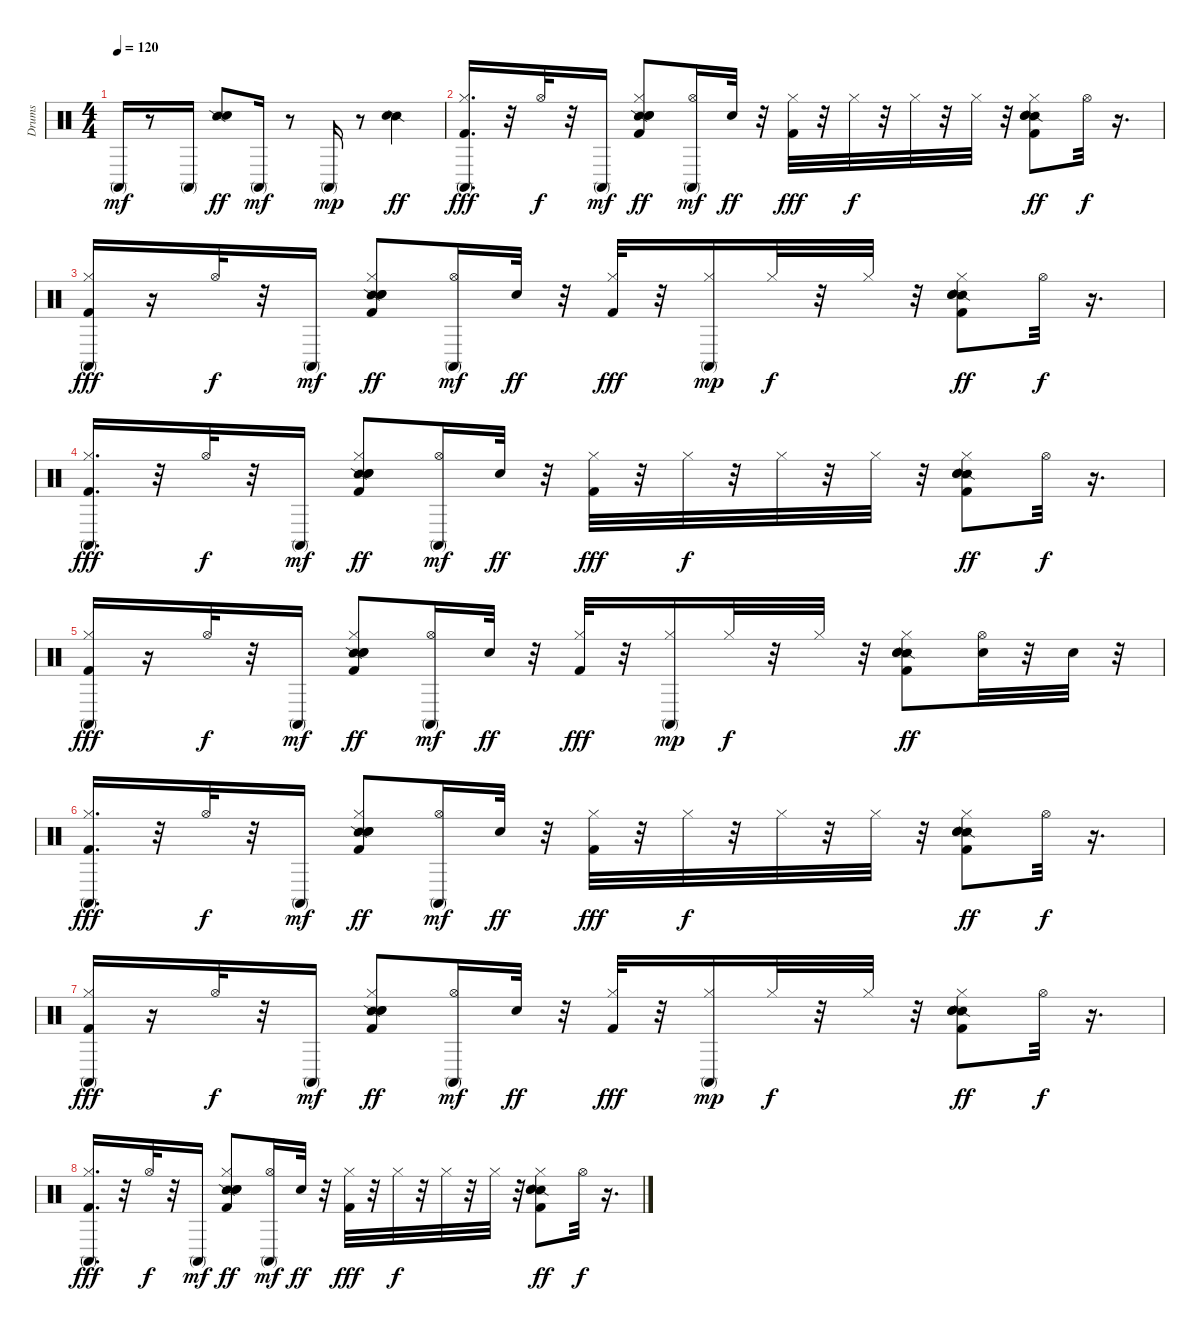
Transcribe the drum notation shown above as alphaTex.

\track ("Drums" "Drums") {instrument percussion}
\staff {score}
\articulation defaults
\ts (4 4)
\tempo 120
\clef neutral
\ks c "Conga high (mute)".16{dy mf}
r.8 "Conga high (mute)".16 ("Snare (side stick) 2" "Hand Clap (hit)").8{dy ff} "Conga high (mute)".16{dy mf} r.8 "Conga high (mute)".16{dy mp} r.8 ("Snare (side stick) 2" "Hand Clap (hit)").4{dy ff} |
("Conga high (mute)" "Kick (hit) 2" "Hi-Hat (closed)").16{d dy fff} r.32 "Hi-Hat (open)".32{dy f} r.32 "Conga high (mute)".16{dy mf} ("Snare (side stick) 2" "Kick (hit) 2" "Snare (hit) 2" "Hi-Hat (closed)" "Hand Clap (hit)").8{dy ff} ("Conga high (mute)" "Hi-Hat (open)").16{dy mf} "Snare (hit) 2".32{dy ff} r.32 ("Kick (hit) 2" "Hi-Hat (closed)").32{dy fff} r.32 "Hi-Hat (closed)".32{dy f} r.32 "Hi-Hat (closed)".32 r.32 "Hi-Hat (closed)".32 r.32 ("Snare (side stick) 2" "Kick (hit) 2" "Snare (hit) 2" "Hi-Hat (closed)" "Hand Clap (hit)").8{dy ff} "Hi-Hat (open)".32{dy f} r.16{d} |
("Conga high (mute)" "Kick (hit) 2" "Hi-Hat (closed)").16{dy fff} r.16 "Hi-Hat (open)".32{dy f} r.32 "Conga high (mute)".16{dy mf} ("Snare (side stick) 2" "Kick (hit) 2" "Snare (hit) 2" "Hi-Hat (closed)" "Hand Clap (hit)").8{dy ff} ("Conga high (mute)" "Hi-Hat (open)").16{dy mf} "Snare (hit) 2".32{dy ff} r.32 ("Kick (hit) 2" "Hi-Hat (closed)").32{dy fff} r.32 ("Conga high (mute)" "Hi-Hat (closed)").16{dy mp} "Hi-Hat (closed)".32{dy f} r.32 "Hi-Hat (closed)".32 r.32 ("Snare (side stick) 2" "Kick (hit) 2" "Snare (hit) 2" "Hi-Hat (closed)" "Hand Clap (hit)").8{dy ff} "Hi-Hat (open)".32{dy f} r.16{d} |
("Conga high (mute)" "Kick (hit) 2" "Hi-Hat (closed)").16{d dy fff} r.32 "Hi-Hat (open)".32{dy f} r.32 "Conga high (mute)".16{dy mf} ("Snare (side stick) 2" "Kick (hit) 2" "Snare (hit) 2" "Hi-Hat (closed)" "Hand Clap (hit)").8{dy ff} ("Conga high (mute)" "Hi-Hat (open)").16{dy mf} "Snare (hit) 2".32{dy ff} r.32 ("Kick (hit) 2" "Hi-Hat (closed)").32{dy fff} r.32 "Hi-Hat (closed)".32{dy f} r.32 "Hi-Hat (closed)".32 r.32 "Hi-Hat (closed)".32 r.32 ("Snare (side stick) 2" "Kick (hit) 2" "Snare (hit) 2" "Hi-Hat (closed)" "Hand Clap (hit)").8{dy ff} "Hi-Hat (open)".32{dy f} r.16{d} |
("Conga high (mute)" "Kick (hit) 2" "Hi-Hat (closed)").16{dy fff} r.16 "Hi-Hat (open)".32{dy f} r.32 "Conga high (mute)".16{dy mf} ("Snare (side stick) 2" "Kick (hit) 2" "Snare (hit) 2" "Hi-Hat (closed)" "Hand Clap (hit)").8{dy ff} ("Conga high (mute)" "Hi-Hat (open)").16{dy mf} "Snare (hit) 2".32{dy ff} r.32 ("Kick (hit) 2" "Hi-Hat (closed)").32{dy fff} r.32 ("Conga high (mute)" "Hi-Hat (closed)").16{dy mp} "Hi-Hat (closed)".32{dy f} r.32 "Hi-Hat (closed)".32 r.32 ("Snare (side stick) 2" "Kick (hit) 2" "Snare (hit) 2" "Hi-Hat (closed)" "Hand Clap (hit)").8{dy ff} ("Snare (hit) 2" "Hi-Hat (open)").32 r.32 "Snare (hit) 2".32 r.32 |
("Conga high (mute)" "Kick (hit) 2" "Hi-Hat (closed)").16{d dy fff} r.32 "Hi-Hat (open)".32{dy f} r.32 "Conga high (mute)".16{dy mf} ("Snare (side stick) 2" "Kick (hit) 2" "Snare (hit) 2" "Hi-Hat (closed)" "Hand Clap (hit)").8{dy ff} ("Conga high (mute)" "Hi-Hat (open)").16{dy mf} "Snare (hit) 2".32{dy ff} r.32 ("Kick (hit) 2" "Hi-Hat (closed)").32{dy fff} r.32 "Hi-Hat (closed)".32{dy f} r.32 "Hi-Hat (closed)".32 r.32 "Hi-Hat (closed)".32 r.32 ("Snare (side stick) 2" "Kick (hit) 2" "Snare (hit) 2" "Hi-Hat (closed)" "Hand Clap (hit)").8{dy ff} "Hi-Hat (open)".32{dy f} r.16{d} |
("Conga high (mute)" "Kick (hit) 2" "Hi-Hat (closed)").16{dy fff} r.16 "Hi-Hat (open)".32{dy f} r.32 "Conga high (mute)".16{dy mf} ("Snare (side stick) 2" "Kick (hit) 2" "Snare (hit) 2" "Hi-Hat (closed)" "Hand Clap (hit)").8{dy ff} ("Conga high (mute)" "Hi-Hat (open)").16{dy mf} "Snare (hit) 2".32{dy ff} r.32 ("Kick (hit) 2" "Hi-Hat (closed)").32{dy fff} r.32 ("Conga high (mute)" "Hi-Hat (closed)").16{dy mp} "Hi-Hat (closed)".32{dy f} r.32 "Hi-Hat (closed)".32 r.32 ("Snare (side stick) 2" "Kick (hit) 2" "Snare (hit) 2" "Hi-Hat (closed)" "Hand Clap (hit)").8{dy ff} "Hi-Hat (open)".32{dy f} r.16{d} |
("Conga high (mute)" "Kick (hit) 2" "Hi-Hat (closed)").16{d dy fff} r.32 "Hi-Hat (open)".32{dy f} r.32 "Conga high (mute)".16{dy mf} ("Snare (side stick) 2" "Kick (hit) 2" "Snare (hit) 2" "Hi-Hat (closed)" "Hand Clap (hit)").8{dy ff} ("Conga high (mute)" "Hi-Hat (open)").16{dy mf} "Snare (hit) 2".32{dy ff} r.32 ("Kick (hit) 2" "Hi-Hat (closed)").32{dy fff} r.32 "Hi-Hat (closed)".32{dy f} r.32 "Hi-Hat (closed)".32 r.32 "Hi-Hat (closed)".32 r.32 ("Snare (side stick) 2" "Kick (hit) 2" "Snare (hit) 2" "Hi-Hat (closed)" "Hand Clap (hit)").8{dy ff} "Hi-Hat (open)".32{dy f} r.16{d}
